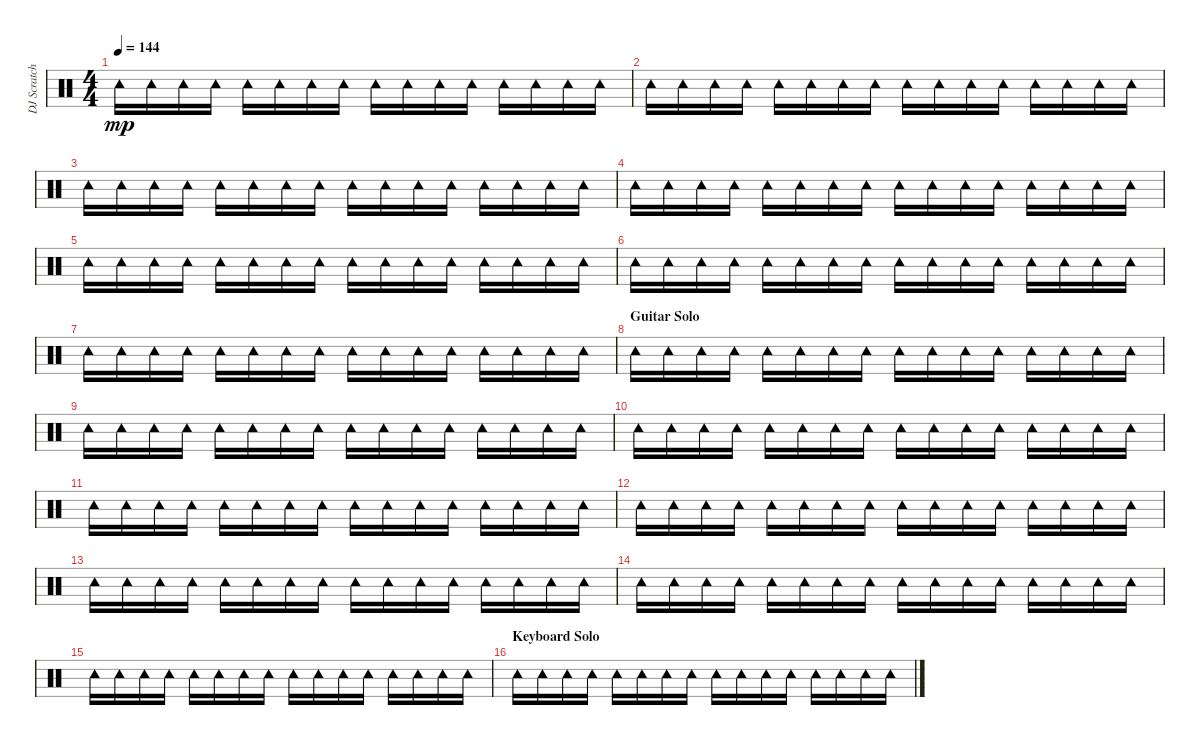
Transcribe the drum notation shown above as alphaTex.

\track ("DJ Scratches/ Percussion" "DJ Scratch") {instrument percussion}
\staff {score}
\articulation defaults
\ts (4 4)
\tempo 144
\clef neutral
\ks c "Tambourine (hit)".16{dy mp} "Tambourine (hit)".16 "Tambourine (hit)".16 "Tambourine (hit)".16 "Tambourine (hit)".16 "Tambourine (hit)".16 "Tambourine (hit)".16 "Tambourine (hit)".16 "Tambourine (hit)".16 "Tambourine (hit)".16 "Tambourine (hit)".16 "Tambourine (hit)".16 "Tambourine (hit)".16 "Tambourine (hit)".16 "Tambourine (hit)".16 "Tambourine (hit)".16
|
"Tambourine (hit)".16 "Tambourine (hit)".16 "Tambourine (hit)".16 "Tambourine (hit)".16 "Tambourine (hit)".16 "Tambourine (hit)".16 "Tambourine (hit)".16 "Tambourine (hit)".16 "Tambourine (hit)".16 "Tambourine (hit)".16 "Tambourine (hit)".16 "Tambourine (hit)".16 "Tambourine (hit)".16 "Tambourine (hit)".16 "Tambourine (hit)".16 "Tambourine (hit)".16 |
"Tambourine (hit)".16 "Tambourine (hit)".16 "Tambourine (hit)".16 "Tambourine (hit)".16 "Tambourine (hit)".16 "Tambourine (hit)".16 "Tambourine (hit)".16 "Tambourine (hit)".16 "Tambourine (hit)".16 "Tambourine (hit)".16 "Tambourine (hit)".16 "Tambourine (hit)".16 "Tambourine (hit)".16 "Tambourine (hit)".16 "Tambourine (hit)".16 "Tambourine (hit)".16 |
"Tambourine (hit)".16 "Tambourine (hit)".16 "Tambourine (hit)".16 "Tambourine (hit)".16 "Tambourine (hit)".16 "Tambourine (hit)".16 "Tambourine (hit)".16 "Tambourine (hit)".16 "Tambourine (hit)".16 "Tambourine (hit)".16 "Tambourine (hit)".16 "Tambourine (hit)".16 "Tambourine (hit)".16 "Tambourine (hit)".16 "Tambourine (hit)".16 "Tambourine (hit)".16 |
"Tambourine (hit)".16 "Tambourine (hit)".16 "Tambourine (hit)".16 "Tambourine (hit)".16 "Tambourine (hit)".16 "Tambourine (hit)".16 "Tambourine (hit)".16 "Tambourine (hit)".16 "Tambourine (hit)".16 "Tambourine (hit)".16 "Tambourine (hit)".16 "Tambourine (hit)".16 "Tambourine (hit)".16 "Tambourine (hit)".16 "Tambourine (hit)".16 "Tambourine (hit)".16 |
"Tambourine (hit)".16 "Tambourine (hit)".16 "Tambourine (hit)".16 "Tambourine (hit)".16 "Tambourine (hit)".16 "Tambourine (hit)".16 "Tambourine (hit)".16 "Tambourine (hit)".16 "Tambourine (hit)".16 "Tambourine (hit)".16 "Tambourine (hit)".16 "Tambourine (hit)".16 "Tambourine (hit)".16 "Tambourine (hit)".16 "Tambourine (hit)".16 "Tambourine (hit)".16 |
"Tambourine (hit)".16 "Tambourine (hit)".16 "Tambourine (hit)".16 "Tambourine (hit)".16 "Tambourine (hit)".16 "Tambourine (hit)".16 "Tambourine (hit)".16 "Tambourine (hit)".16 "Tambourine (hit)".16 "Tambourine (hit)".16 "Tambourine (hit)".16 "Tambourine (hit)".16 "Tambourine (hit)".16 "Tambourine (hit)".16 "Tambourine (hit)".16 "Tambourine (hit)".16 |
\section ("" "Guitar Solo")
"Tambourine (hit)".16 "Tambourine (hit)".16 "Tambourine (hit)".16 "Tambourine (hit)".16 "Tambourine (hit)".16 "Tambourine (hit)".16 "Tambourine (hit)".16 "Tambourine (hit)".16 "Tambourine (hit)".16 "Tambourine (hit)".16 "Tambourine (hit)".16 "Tambourine (hit)".16 "Tambourine (hit)".16 "Tambourine (hit)".16 "Tambourine (hit)".16 "Tambourine (hit)".16 |
"Tambourine (hit)".16 "Tambourine (hit)".16 "Tambourine (hit)".16 "Tambourine (hit)".16 "Tambourine (hit)".16 "Tambourine (hit)".16 "Tambourine (hit)".16 "Tambourine (hit)".16 "Tambourine (hit)".16 "Tambourine (hit)".16 "Tambourine (hit)".16 "Tambourine (hit)".16 "Tambourine (hit)".16 "Tambourine (hit)".16 "Tambourine (hit)".16 "Tambourine (hit)".16 |
"Tambourine (hit)".16 "Tambourine (hit)".16 "Tambourine (hit)".16 "Tambourine (hit)".16 "Tambourine (hit)".16 "Tambourine (hit)".16 "Tambourine (hit)".16 "Tambourine (hit)".16 "Tambourine (hit)".16 "Tambourine (hit)".16 "Tambourine (hit)".16 "Tambourine (hit)".16 "Tambourine (hit)".16 "Tambourine (hit)".16 "Tambourine (hit)".16 "Tambourine (hit)".16 |
"Tambourine (hit)".16 "Tambourine (hit)".16 "Tambourine (hit)".16 "Tambourine (hit)".16 "Tambourine (hit)".16 "Tambourine (hit)".16 "Tambourine (hit)".16 "Tambourine (hit)".16 "Tambourine (hit)".16 "Tambourine (hit)".16 "Tambourine (hit)".16 "Tambourine (hit)".16 "Tambourine (hit)".16 "Tambourine (hit)".16 "Tambourine (hit)".16 "Tambourine (hit)".16 |
"Tambourine (hit)".16 "Tambourine (hit)".16 "Tambourine (hit)".16 "Tambourine (hit)".16 "Tambourine (hit)".16 "Tambourine (hit)".16 "Tambourine (hit)".16 "Tambourine (hit)".16 "Tambourine (hit)".16 "Tambourine (hit)".16 "Tambourine (hit)".16 "Tambourine (hit)".16 "Tambourine (hit)".16 "Tambourine (hit)".16 "Tambourine (hit)".16 "Tambourine (hit)".16 |
"Tambourine (hit)".16 "Tambourine (hit)".16 "Tambourine (hit)".16 "Tambourine (hit)".16 "Tambourine (hit)".16 "Tambourine (hit)".16 "Tambourine (hit)".16 "Tambourine (hit)".16 "Tambourine (hit)".16 "Tambourine (hit)".16 "Tambourine (hit)".16 "Tambourine (hit)".16 "Tambourine (hit)".16 "Tambourine (hit)".16 "Tambourine (hit)".16 "Tambourine (hit)".16 |
"Tambourine (hit)".16 "Tambourine (hit)".16 "Tambourine (hit)".16 "Tambourine (hit)".16 "Tambourine (hit)".16 "Tambourine (hit)".16 "Tambourine (hit)".16 "Tambourine (hit)".16 "Tambourine (hit)".16 "Tambourine (hit)".16 "Tambourine (hit)".16 "Tambourine (hit)".16 "Tambourine (hit)".16 "Tambourine (hit)".16 "Tambourine (hit)".16 "Tambourine (hit)".16 |
"Tambourine (hit)".16 "Tambourine (hit)".16 "Tambourine (hit)".16 "Tambourine (hit)".16 "Tambourine (hit)".16 "Tambourine (hit)".16 "Tambourine (hit)".16 "Tambourine (hit)".16 "Tambourine (hit)".16 "Tambourine (hit)".16 "Tambourine (hit)".16 "Tambourine (hit)".16 "Tambourine (hit)".16 "Tambourine (hit)".16 "Tambourine (hit)".16 "Tambourine (hit)".16 |
\section ("" "Keyboard Solo")
"Tambourine (hit)".16 "Tambourine (hit)".16 "Tambourine (hit)".16 "Tambourine (hit)".16 "Tambourine (hit)".16 "Tambourine (hit)".16 "Tambourine (hit)".16 "Tambourine (hit)".16 "Tambourine (hit)".16 "Tambourine (hit)".16 "Tambourine (hit)".16 "Tambourine (hit)".16 "Tambourine (hit)".16 "Tambourine (hit)".16 "Tambourine (hit)".16 "Tambourine (hit)".16
